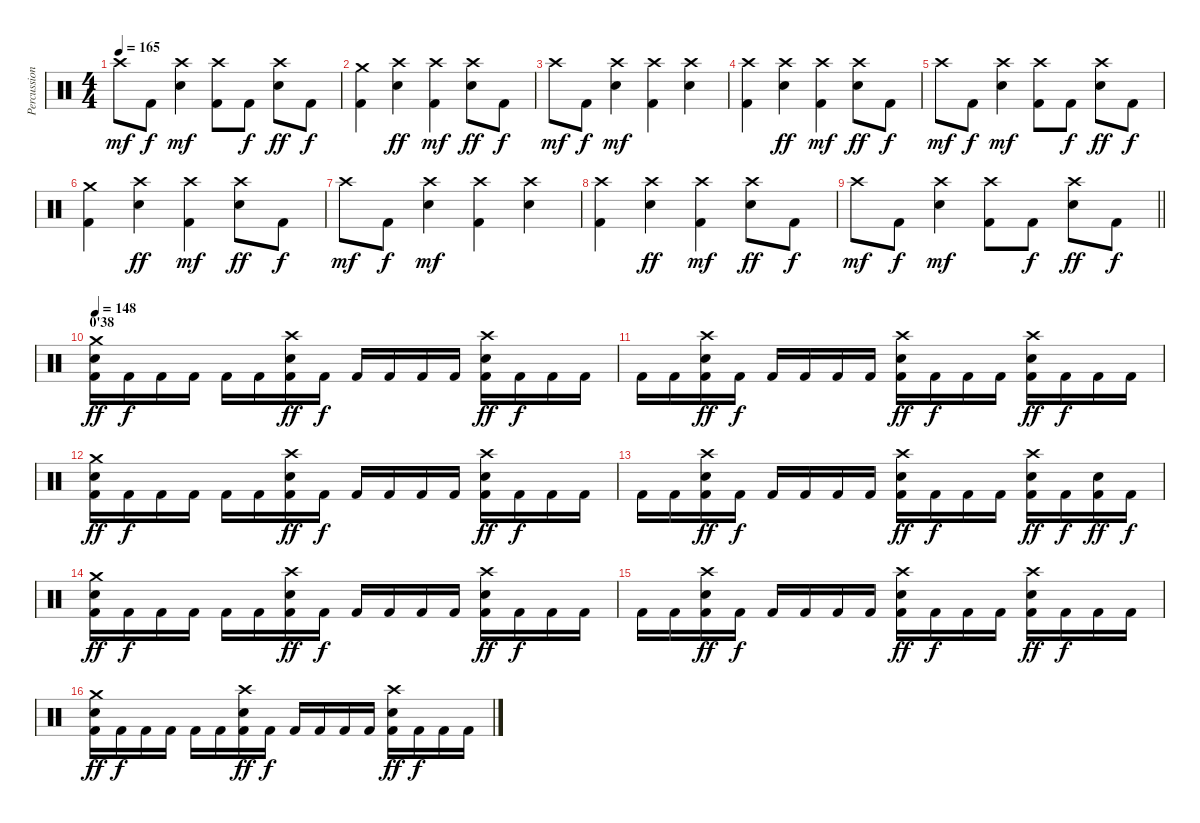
\track ("Percussions" "Percussion") {instrument percussion}
\staff {score}
\articulation defaults
\ts (4 4)
\tempo 165
\clef neutral
\ks c "Crash high (hit)".8{dy mf} "Kick (hit) 2".8{dy f}
("Crash high (hit)" "Electric Snare (hit)").4{dy mf} ("Crash high (hit)" "Kick (hit) 2").8 "Kick (hit) 2".8{dy f} ("Crash high (hit)" "Electric Snare (hit)").8{dy ff} "Kick (hit) 2".8{dy f} |
("Crash medium (hit)" "Kick (hit) 2").4 ("Crash high (hit)" "Electric Snare (hit)").4{dy ff} ("Crash high (hit)" "Kick (hit) 2").4{dy mf} ("Crash high (hit)" "Electric Snare (hit)").8{dy ff} "Kick (hit) 2".8{dy f} |
"Crash high (hit)".8{dy mf} "Kick (hit) 2".8{dy f} ("Crash high (hit)" "Electric Snare (hit)").4{dy mf} ("Crash high (hit)" "Kick (hit) 2").4 ("Crash high (hit)" "Electric Snare (hit)").4 |
("Crash high (hit)" "Kick (hit) 2").4 ("Crash high (hit)" "Electric Snare (hit)").4{dy ff} ("Crash high (hit)" "Kick (hit) 2").4{dy mf} ("Crash high (hit)" "Electric Snare (hit)").8{dy ff} "Kick (hit) 2".8{dy f} |
"Crash high (hit)".8{dy mf} "Kick (hit) 2".8{dy f} ("Crash high (hit)" "Electric Snare (hit)").4{dy mf} ("Crash high (hit)" "Kick (hit) 2").8 "Kick (hit) 2".8{dy f} ("Crash high (hit)" "Electric Snare (hit)").8{dy ff} "Kick (hit) 2".8{dy f} |
("Crash medium (hit)" "Kick (hit) 2").4 ("Crash high (hit)" "Electric Snare (hit)").4{dy ff} ("Crash high (hit)" "Kick (hit) 2").4{dy mf} ("Crash high (hit)" "Electric Snare (hit)").8{dy ff} "Kick (hit) 2".8{dy f} |
"Crash high (hit)".8{dy mf} "Kick (hit) 2".8{dy f} ("Crash high (hit)" "Electric Snare (hit)").4{dy mf} ("Crash high (hit)" "Kick (hit) 2").4 ("Crash high (hit)" "Electric Snare (hit)").4 |
("Crash high (hit)" "Kick (hit) 2").4 ("Crash high (hit)" "Electric Snare (hit)").4{dy ff} ("Crash high (hit)" "Kick (hit) 2").4{dy mf} ("Crash high (hit)" "Electric Snare (hit)").8{dy ff} "Kick (hit) 2".8{dy f} |
\barLineRight lightlight "Crash high (hit)".8{dy mf} "Kick (hit) 2".8{dy f}
("Crash high (hit)" "Electric Snare (hit)").4{dy mf} ("Crash high (hit)" "Kick (hit) 2").8 "Kick (hit) 2".8{dy f} ("Crash high (hit)" "Electric Snare (hit)").8{dy ff} "Kick (hit) 2".8{dy f} |
\section ("" "0'38")
\tempo 148
("Crash medium (hit)" "Electric Snare (hit)" "Kick (hit) 2").16{dy ff} "Kick (hit) 2".16{dy f} "Kick (hit) 2".16 "Kick (hit) 2".16 "Kick (hit) 2".16 "Kick (hit) 2".16 ("Crash high (hit)" "Electric Snare (hit)" "Kick (hit) 2").16{dy ff} "Kick (hit) 2".16{dy f} "Kick (hit) 2".16 "Kick (hit) 2".16 "Kick (hit) 2".16 "Kick (hit) 2".16 ("Crash high (hit)" "Electric Snare (hit)" "Kick (hit) 2").16{dy ff} "Kick (hit) 2".16{dy f} "Kick (hit) 2".16 "Kick (hit) 2".16 |
"Kick (hit) 2".16 "Kick (hit) 2".16 ("Crash high (hit)" "Electric Snare (hit)" "Kick (hit) 2").16{dy ff} "Kick (hit) 2".16{dy f} "Kick (hit) 2".16 "Kick (hit) 2".16 "Kick (hit) 2".16 "Kick (hit) 2".16 ("Crash high (hit)" "Electric Snare (hit)" "Kick (hit) 2").16{dy ff} "Kick (hit) 2".16{dy f} "Kick (hit) 2".16 "Kick (hit) 2".16 ("Crash high (hit)" "Electric Snare (hit)" "Kick (hit) 2").16{dy ff} "Kick (hit) 2".16{dy f} "Kick (hit) 2".16 "Kick (hit) 2".16 |
("Crash medium (hit)" "Electric Snare (hit)" "Kick (hit) 2").16{dy ff} "Kick (hit) 2".16{dy f} "Kick (hit) 2".16 "Kick (hit) 2".16 "Kick (hit) 2".16 "Kick (hit) 2".16 ("Crash high (hit)" "Electric Snare (hit)" "Kick (hit) 2").16{dy ff} "Kick (hit) 2".16{dy f} "Kick (hit) 2".16 "Kick (hit) 2".16 "Kick (hit) 2".16 "Kick (hit) 2".16 ("Crash high (hit)" "Electric Snare (hit)" "Kick (hit) 2").16{dy ff} "Kick (hit) 2".16{dy f} "Kick (hit) 2".16 "Kick (hit) 2".16 |
"Kick (hit) 2".16 "Kick (hit) 2".16 ("Crash high (hit)" "Electric Snare (hit)" "Kick (hit) 2").16{dy ff} "Kick (hit) 2".16{dy f} "Kick (hit) 2".16 "Kick (hit) 2".16 "Kick (hit) 2".16 "Kick (hit) 2".16 ("Crash high (hit)" "Electric Snare (hit)" "Kick (hit) 2").16{dy ff} "Kick (hit) 2".16{dy f} "Kick (hit) 2".16 "Kick (hit) 2".16 ("Crash high (hit)" "Electric Snare (hit)" "Kick (hit) 2").16{dy ff} "Kick (hit) 2".16{dy f} ("Electric Snare (hit)" "Kick (hit) 2").16{dy ff} "Kick (hit) 2".16{dy f} |
("Crash medium (hit)" "Electric Snare (hit)" "Kick (hit) 2").16{dy ff} "Kick (hit) 2".16{dy f} "Kick (hit) 2".16 "Kick (hit) 2".16 "Kick (hit) 2".16 "Kick (hit) 2".16 ("Crash high (hit)" "Electric Snare (hit)" "Kick (hit) 2").16{dy ff} "Kick (hit) 2".16{dy f} "Kick (hit) 2".16 "Kick (hit) 2".16 "Kick (hit) 2".16 "Kick (hit) 2".16 ("Crash high (hit)" "Electric Snare (hit)" "Kick (hit) 2").16{dy ff} "Kick (hit) 2".16{dy f} "Kick (hit) 2".16 "Kick (hit) 2".16 |
"Kick (hit) 2".16 "Kick (hit) 2".16 ("Crash high (hit)" "Electric Snare (hit)" "Kick (hit) 2").16{dy ff} "Kick (hit) 2".16{dy f} "Kick (hit) 2".16 "Kick (hit) 2".16 "Kick (hit) 2".16 "Kick (hit) 2".16 ("Crash high (hit)" "Electric Snare (hit)" "Kick (hit) 2").16{dy ff} "Kick (hit) 2".16{dy f} "Kick (hit) 2".16 "Kick (hit) 2".16 ("Crash high (hit)" "Electric Snare (hit)" "Kick (hit) 2").16{dy ff} "Kick (hit) 2".16{dy f} "Kick (hit) 2".16 "Kick (hit) 2".16 |
("Crash medium (hit)" "Electric Snare (hit)" "Kick (hit) 2").16{dy ff} "Kick (hit) 2".16{dy f} "Kick (hit) 2".16 "Kick (hit) 2".16 "Kick (hit) 2".16 "Kick (hit) 2".16 ("Crash high (hit)" "Electric Snare (hit)" "Kick (hit) 2").16{dy ff} "Kick (hit) 2".16{dy f} "Kick (hit) 2".16 "Kick (hit) 2".16 "Kick (hit) 2".16 "Kick (hit) 2".16 ("Crash high (hit)" "Electric Snare (hit)" "Kick (hit) 2").16{dy ff} "Kick (hit) 2".16{dy f} "Kick (hit) 2".16 "Kick (hit) 2".16
